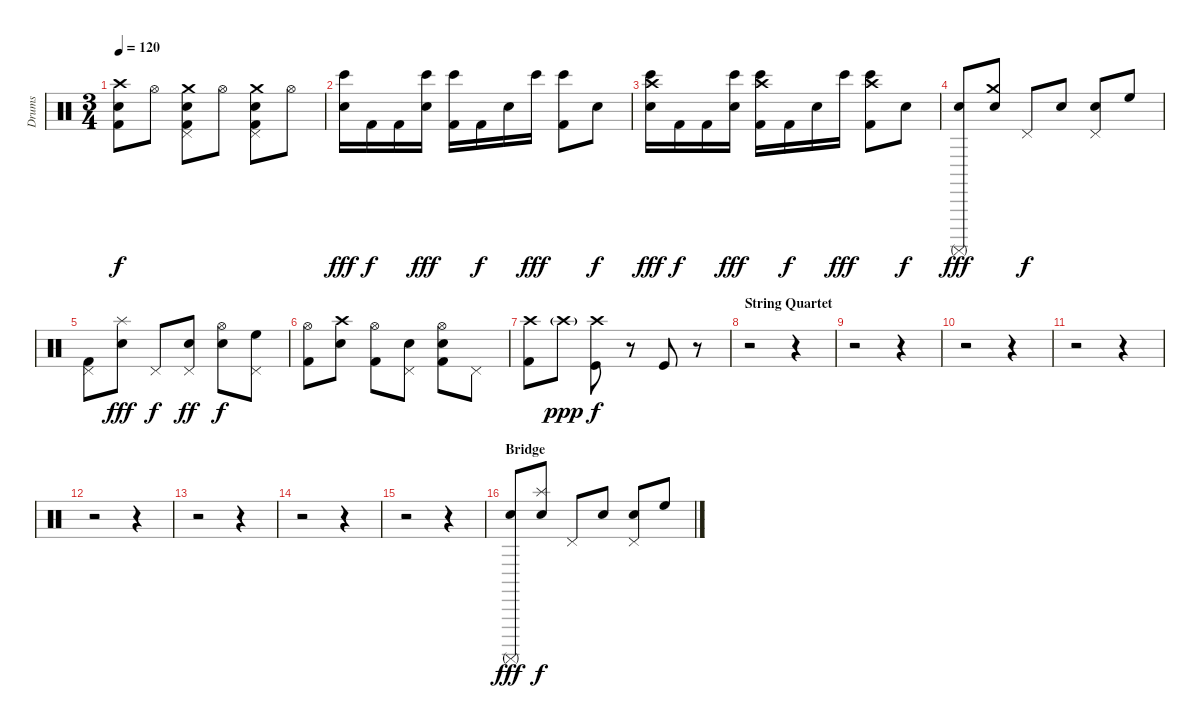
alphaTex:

\track ("Drums" "Drums") {instrument percussion}
\staff {score}
\articulation defaults
\ts (3 4)
\tempo 120
\clef neutral
\ks c
("Crash high (hit)" "Electric Snare (hit)" "Kick (hit) 2").8{dy f} "Hi-Hat (open)".8 ("Crash medium (hit)" "Pedal Hi-Hat (hit)" "Electric Snare (hit)" "Kick (hit) 2").8 "Hi-Hat (open)".8 ("Crash medium (hit)" "Pedal Hi-Hat (hit)" "Electric Snare (hit)" "Kick (hit) 2").8 "Hi-Hat (open)".8 |
("Bongo High (hit)" "Electric Snare (hit)").16{dy fff} "Kick (hit) 2".16{dy f} "Kick (hit) 2".16 ("Bongo High (hit)" "Electric Snare (hit)").16{dy fff} ("Bongo High (hit)" "Kick (hit) 2").16 "Kick (hit) 2".16{dy f} "Electric Snare (hit)".16 "Bongo High (hit)".16{dy fff} ("Bongo High (hit)" "Kick (hit) 2").8 "Electric Snare (hit)".8{dy f} |
("Crash high (hit)" "Bongo High (hit)" "Electric Snare (hit)").16{dy fff} "Kick (hit) 2".16{dy f} "Kick (hit) 2".16 ("Bongo High (hit)" "Electric Snare (hit)").16{dy fff} ("Crash high (hit)" "Bongo High (hit)" "Kick (hit) 2").16 "Kick (hit) 2".16{dy f} "Electric Snare (hit)".16 "Bongo High (hit)".16{dy fff} ("Crash high (hit)" "Bongo High (hit)" "Kick (hit) 2").8 "Electric Snare (hit)".8{dy f} |
("Electric Snare (hit)" "Surdo (mute)").8{dy fff} ("Crash medium (hit)" "Electric Snare (hit)").8 "Pedal Hi-Hat (hit)".8{dy f} "Electric Snare (hit)".8 ("Pedal Hi-Hat (hit)" "Electric Snare (hit)").8 "High Floor Tom (hit)".8 |
("Pedal Hi-Hat (hit)" "Kick (hit) 2").8 ("Splash (hit)" "Electric Snare (hit)").8{dy fff} "Pedal Hi-Hat (hit)".8{dy f} ("Pedal Hi-Hat (hit)" "Electric Snare (hit)").8{dy ff} ("Hi-Hat (open)" "Electric Snare (hit)").8{dy f} ("Pedal Hi-Hat (hit)" "High Floor Tom (hit)").8 |
("Hi-Hat (open)" "Kick (hit) 2").8 ("Crash high (hit)" "Electric Snare (hit)").8 ("Hi-Hat (open)" "Kick (hit) 2").8 ("Pedal Hi-Hat (hit)" "Electric Snare (hit)").8 ("Hi-Hat (open)" "Electric Snare (hit)" "Kick (hit) 2").8 "Pedal Hi-Hat (hit)".8 |
("Crash high (hit)" "Kick (hit) 2").8 "Crash high (hit)"{g}.8{dy ppp} ("Crash high (hit)" "Kick (hit)").8{dy f} r.8 "Kick (hit)".8 r.8 |
\section ("" "String Quartet")
r.2 r.4 |
r.2 r.4 |
r.2 r.4 |
r.2 r.4 |
r.2 r.4 |
r.2 r.4 |
r.2 r.4 |
r.2 r.4 |
\section ("" "Bridge")
("Electric Snare (hit)" "Surdo (mute)").8{dy fff} ("Splash (hit)" "Electric Snare (hit)").8{dy f} "Pedal Hi-Hat (hit)".8 "Electric Snare (hit)".8 ("Pedal Hi-Hat (hit)" "Electric Snare (hit)").8 "High Floor Tom (hit)".8
